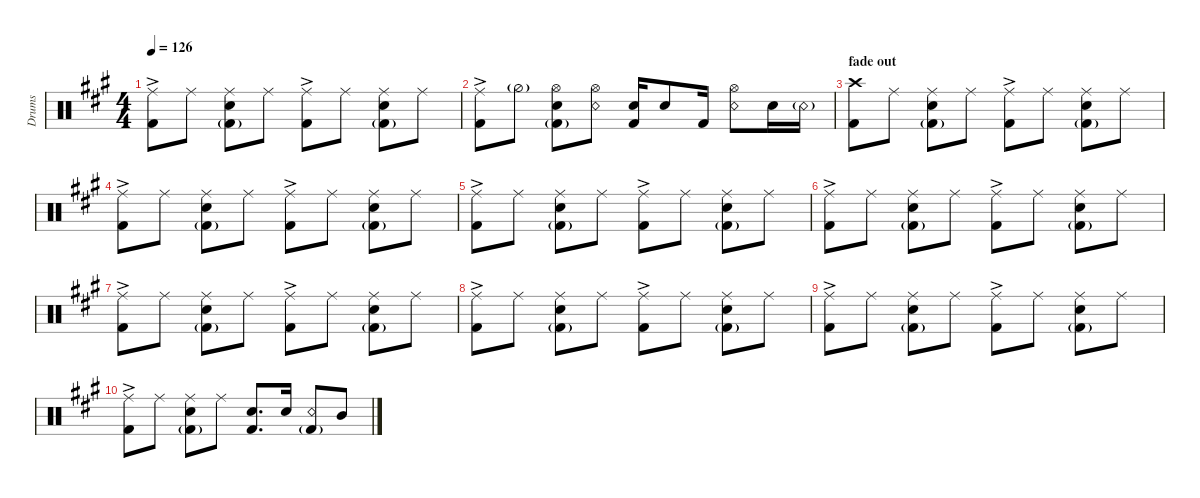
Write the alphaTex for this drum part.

\hideDynamics
\bracketExtendMode groupsimilarinstruments
\otherSystemsTrackNameOrientation horizontal
\track ("Drumkit" "Drums") {defaultSystemsLayout 4 instrument percussion}
\staff {score}
\articulation defaults
\ts (4 4)
\tempo 126
\clef neutral
\ks a
("Ride (middle)"{ac acc forcenatural} "Kick (hit) 2"{acc forcenatural}).8{dy f beam Down} "Ride (middle)"{acc forcenatural}.8{beam Down} ("Ride (middle)"{acc forcenatural} "Snare (hit) 2"{acc forcenatural} "Kick (hit) 2"{g acc forcenatural}).8{beam Down} "Ride (middle)"{acc forcenatural}.8{beam Down} ("Ride (middle)"{ac acc forcenatural} "Kick (hit) 2"{acc forcenatural}).8{beam Down} "Ride (middle)"{acc forcenatural}.8{beam Down} ("Ride (middle)"{acc forcenatural} "Snare (hit) 2"{acc forcenatural} "Kick (hit) 2"{g acc forcenatural}).8{beam Down} "Ride (middle)"{acc forcenatural}.8{beam Down} |
("Ride (middle)"{ac acc forcenatural} "Kick (hit) 2"{acc forcenatural}).8{beam Down} "Hi-Hat (half)"{g acc forcenatural}.8{beam Down} ("Snare (hit) 2"{acc forcenatural} "Kick (hit) 2"{g acc forcenatural} "Hi-Hat (open)"{acc forcenatural}).8{beam Down} ("Snare (rim shot)"{acc forcenatural} "Hi-Hat (open)"{acc forcenatural}).8{beam Down} ("Snare (hit) 2"{acc forcenatural} "Kick (hit) 2"{acc forcenatural}).16{beam Up} "Snare (hit) 2"{acc forcenatural}.8{beam Up} "Kick (hit) 2"{acc forcenatural}.16{beam Up} ("Snare (rim shot)"{acc forcenatural} "Hi-Hat (open)"{acc forcenatural}).8{beam Down} "Snare (hit) 2"{acc forcenatural}.16{beam Down} "Snare (rim shot)"{g acc forcenatural}.16{beam Down} |
\section ("" "fade out")
("Crash high (hit)"{acc forcenatural} "Kick (hit) 2"{acc forcenatural}).8{beam Down} "Ride (middle)"{acc forcenatural}.8{beam Down} ("Ride (middle)"{acc forcenatural} "Snare (hit) 2"{acc forcenatural} "Kick (hit) 2"{g acc forcenatural}).8{beam Down} "Ride (middle)"{acc forcenatural}.8{beam Down} ("Ride (middle)"{ac acc forcenatural} "Kick (hit) 2"{acc forcenatural}).8{beam Down} "Ride (middle)"{acc forcenatural}.8{beam Down} ("Ride (middle)"{acc forcenatural} "Snare (hit) 2"{acc forcenatural} "Kick (hit) 2"{g acc forcenatural}).8{beam Down} "Ride (middle)"{acc forcenatural}.8{beam Down} |
("Ride (middle)"{ac acc forcenatural} "Kick (hit) 2"{acc forcenatural}).8{beam Down} "Ride (middle)"{acc forcenatural}.8{beam Down} ("Ride (middle)"{acc forcenatural} "Snare (hit) 2"{acc forcenatural} "Kick (hit) 2"{g acc forcenatural}).8{beam Down} "Ride (middle)"{acc forcenatural}.8{beam Down} ("Ride (middle)"{ac acc forcenatural} "Kick (hit) 2"{acc forcenatural}).8{beam Down} "Ride (middle)"{acc forcenatural}.8{beam Down} ("Ride (middle)"{acc forcenatural} "Snare (hit) 2"{acc forcenatural} "Kick (hit) 2"{g acc forcenatural}).8{beam Down} "Ride (middle)"{acc forcenatural}.8{beam Down} |
("Ride (middle)"{ac acc forcenatural} "Kick (hit) 2"{acc forcenatural}).8{beam Down} "Ride (middle)"{acc forcenatural}.8{beam Down} ("Ride (middle)"{acc forcenatural} "Snare (hit) 2"{acc forcenatural} "Kick (hit) 2"{g acc forcenatural}).8{beam Down} "Ride (middle)"{acc forcenatural}.8{beam Down} ("Ride (middle)"{ac acc forcenatural} "Kick (hit) 2"{acc forcenatural}).8{beam Down} "Ride (middle)"{acc forcenatural}.8{beam Down} ("Ride (middle)"{acc forcenatural} "Snare (hit) 2"{acc forcenatural} "Kick (hit) 2"{g acc forcenatural}).8{beam Down} "Ride (middle)"{acc forcenatural}.8{beam Down} |
("Ride (middle)"{ac acc forcenatural} "Kick (hit) 2"{acc forcenatural}).8{beam Down} "Ride (middle)"{acc forcenatural}.8{beam Down} ("Ride (middle)"{acc forcenatural} "Snare (hit) 2"{acc forcenatural} "Kick (hit) 2"{g acc forcenatural}).8{beam Down} "Ride (middle)"{acc forcenatural}.8{beam Down} ("Ride (middle)"{ac acc forcenatural} "Kick (hit) 2"{acc forcenatural}).8{beam Down} "Ride (middle)"{acc forcenatural}.8{beam Down} ("Ride (middle)"{acc forcenatural} "Snare (hit) 2"{acc forcenatural} "Kick (hit) 2"{g acc forcenatural}).8{beam Down} "Ride (middle)"{acc forcenatural}.8{beam Down} |
("Ride (middle)"{ac acc forcenatural} "Kick (hit) 2"{acc forcenatural}).8{beam Down} "Ride (middle)"{acc forcenatural}.8{beam Down} ("Ride (middle)"{acc forcenatural} "Snare (hit) 2"{acc forcenatural} "Kick (hit) 2"{g acc forcenatural}).8{beam Down} "Ride (middle)"{acc forcenatural}.8{beam Down} ("Ride (middle)"{ac acc forcenatural} "Kick (hit) 2"{acc forcenatural}).8{beam Down} "Ride (middle)"{acc forcenatural}.8{beam Down} ("Ride (middle)"{acc forcenatural} "Snare (hit) 2"{acc forcenatural} "Kick (hit) 2"{g acc forcenatural}).8{beam Down} "Ride (middle)"{acc forcenatural}.8{beam Down} |
("Ride (middle)"{ac acc forcenatural} "Kick (hit) 2"{acc forcenatural}).8{beam Down} "Ride (middle)"{acc forcenatural}.8{beam Down} ("Ride (middle)"{acc forcenatural} "Snare (hit) 2"{acc forcenatural} "Kick (hit) 2"{g acc forcenatural}).8{beam Down} "Ride (middle)"{acc forcenatural}.8{beam Down} ("Ride (middle)"{ac acc forcenatural} "Kick (hit) 2"{acc forcenatural}).8{beam Down} "Ride (middle)"{acc forcenatural}.8{beam Down} ("Ride (middle)"{acc forcenatural} "Snare (hit) 2"{acc forcenatural} "Kick (hit) 2"{g acc forcenatural}).8{beam Down} "Ride (middle)"{acc forcenatural}.8{beam Down} |
("Ride (middle)"{ac acc forcenatural} "Kick (hit) 2"{acc forcenatural}).8{beam Down} "Ride (middle)"{acc forcenatural}.8{beam Down} ("Ride (middle)"{acc forcenatural} "Snare (hit) 2"{acc forcenatural} "Kick (hit) 2"{g acc forcenatural}).8{beam Down} "Ride (middle)"{acc forcenatural}.8{beam Down} ("Ride (middle)"{ac acc forcenatural} "Kick (hit) 2"{acc forcenatural}).8{beam Down} "Ride (middle)"{acc forcenatural}.8{beam Down} ("Ride (middle)"{acc forcenatural} "Snare (hit) 2"{acc forcenatural} "Kick (hit) 2"{g acc forcenatural}).8{beam Down} "Ride (middle)"{acc forcenatural}.8{beam Down} |
("Ride (middle)"{ac acc forcenatural} "Kick (hit) 2"{acc forcenatural}).8{beam Down} "Ride (middle)"{acc forcenatural}.8{beam Down} ("Ride (middle)"{acc forcenatural} "Snare (hit) 2"{acc forcenatural} "Kick (hit) 2"{g acc forcenatural}).8{beam Down} "Ride (middle)"{acc forcenatural}.8{beam Down} ("Snare (hit) 2"{acc forcenatural} "Kick (hit) 2"{acc forcenatural}).8{d beam Up} "Snare (hit) 2"{acc forcenatural}.16{beam Up} ("Snare (rim shot)"{acc forcenatural} "Kick (hit) 2"{g acc forcenatural}).8{beam Up} "Mid Tom (hit)"{acc forcenatural}.8{beam Up}
